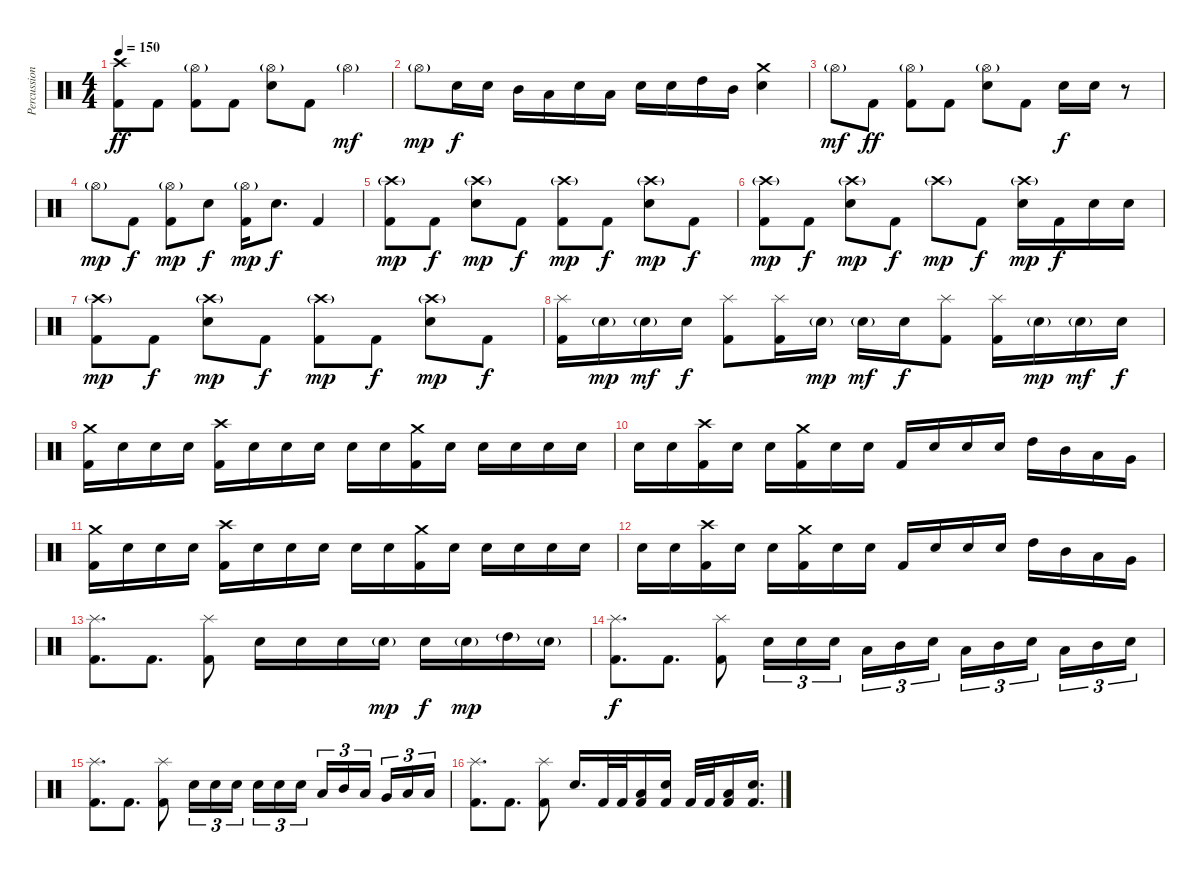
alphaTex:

\track ("Percussion" "Percussion") {instrument percussion}
\staff {score}
\articulation defaults
\ts (4 4)
\tempo 150
\clef neutral
\ks c
("Crash high (hit)" "Kick (hit) 2").8{dy ff} "Kick (hit) 2".8 ("Hi-Hat (open)"{g} "Kick (hit) 2").8 "Kick (hit) 2".8 ("Hi-Hat (open)"{g} "Electric Snare (hit)").8 "Kick (hit) 2".8 "Hi-Hat (open)"{g}.4{dy mf} |
"Hi-Hat (open)"{g}.8{dy mp} "Electric Snare (hit)".16{dy f} "Electric Snare (hit)".16 "Mid Tom (hit)".16 "Low Tom (hit)".16 "Electric Snare (hit)".16 "Low Tom (hit)".16 "Electric Snare (hit)".16 "Electric Snare (hit)".16 "High Tom (hit)".16 "Mid Tom (hit)".16 ("Crash medium (hit)" "Electric Snare (hit)").4 |
"Hi-Hat (open)"{g}.8{dy mf} "Kick (hit) 2".8{dy ff} ("Hi-Hat (open)"{g} "Kick (hit) 2").8 "Kick (hit) 2".8 ("Hi-Hat (open)"{g} "Electric Snare (hit)").8 "Kick (hit) 2".8 "Electric Snare (hit)".16{dy f} "Electric Snare (hit)".16 r.8 |
"Hi-Hat (open)"{g}.8{dy mp} "Kick (hit) 2".8{dy f} ("Hi-Hat (open)"{g} "Kick (hit) 2").8{dy mp} "Electric Snare (hit)".8{dy f} ("Hi-Hat (open)"{g} "Kick (hit) 2").16{dy mp} "Electric Snare (hit)".8{d dy f} "Kick (hit) 2".4 |
("Crash high (hit)"{g} "Kick (hit) 2").8{dy mp} "Kick (hit) 2".8{dy f} ("Crash high (hit)"{g} "Electric Snare (hit)").8{dy mp} "Kick (hit) 2".8{dy f} ("Crash high (hit)"{g} "Kick (hit) 2").8{dy mp} "Kick (hit) 2".8{dy f} ("Crash high (hit)"{g} "Electric Snare (hit)").8{dy mp} "Kick (hit) 2".8{dy f} |
("Crash high (hit)"{g} "Kick (hit) 2").8{dy mp} "Kick (hit) 2".8{dy f} ("Crash high (hit)"{g} "Electric Snare (hit)").8{dy mp} "Kick (hit) 2".8{dy f} "Crash high (hit)"{g}.8{dy mp} "Kick (hit) 2".8{dy f} ("Crash high (hit)"{g} "Electric Snare (hit)").16{dy mp} "Kick (hit) 2".16{dy f} "Electric Snare (hit)".16 "Electric Snare (hit)".16 |
("Crash high (hit)"{g} "Kick (hit) 2").8{dy mp} "Kick (hit) 2".8{dy f} ("Crash high (hit)"{g} "Electric Snare (hit)").8{dy mp} "Kick (hit) 2".8{dy f} ("Crash high (hit)"{g} "Kick (hit) 2").8{dy mp} "Kick (hit) 2".8{dy f} ("Crash high (hit)"{g} "Electric Snare (hit)").8{dy mp} "Kick (hit) 2".8{dy f} |
("Splash (hit)" "Kick (hit) 2").16 "Electric Snare (hit)"{g}.16{dy mp} "Electric Snare (hit)"{g}.16{dy mf} "Electric Snare (hit)".16{dy f} ("Splash (hit)" "Kick (hit) 2").8 ("Splash (hit)" "Kick (hit) 2").16 "Electric Snare (hit)"{g}.16{dy mp} "Electric Snare (hit)"{g}.16{dy mf} "Electric Snare (hit)".16{dy f} ("Splash (hit)" "Kick (hit) 2").8 ("Splash (hit)" "Kick (hit) 2").16 "Electric Snare (hit)"{g}.16{dy mp} "Electric Snare (hit)"{g}.16{dy mf} "Electric Snare (hit)".16{dy f} |
("Crash medium (hit)" "Kick (hit) 2").16 "Electric Snare (hit)".16 "Electric Snare (hit)".16 "Electric Snare (hit)".16 ("Crash high (hit)" "Kick (hit) 2").16 "Electric Snare (hit)".16 "Electric Snare (hit)".16 "Electric Snare (hit)".16 "Electric Snare (hit)".16 "Electric Snare (hit)".16 ("Crash medium (hit)" "Kick (hit) 2").16 "Electric Snare (hit)".16 "Electric Snare (hit)".16 "Electric Snare (hit)".16 "Electric Snare (hit)".16 "Electric Snare (hit)".16 |
"Electric Snare (hit)".16 "Electric Snare (hit)".16 ("Crash high (hit)" "Kick (hit) 2").16 "Electric Snare (hit)".16 "Electric Snare (hit)".16 ("Crash medium (hit)" "Kick (hit) 2").16 "Electric Snare (hit)".16 "Electric Snare (hit)".16 "Kick (hit) 2".16 "Electric Snare (hit)".16 "Electric Snare (hit)".16 "Electric Snare (hit)".16 "High Tom (hit)".16 "Mid Tom (hit)".16 "Low Tom (hit)".16 "Very Low Tom (hit)".16 |
("Crash medium (hit)" "Kick (hit) 2").16 "Electric Snare (hit)".16 "Electric Snare (hit)".16 "Electric Snare (hit)".16 ("Crash high (hit)" "Kick (hit) 2").16 "Electric Snare (hit)".16 "Electric Snare (hit)".16 "Electric Snare (hit)".16 "Electric Snare (hit)".16 "Electric Snare (hit)".16 ("Crash medium (hit)" "Kick (hit) 2").16 "Electric Snare (hit)".16 "Electric Snare (hit)".16 "Electric Snare (hit)".16 "Electric Snare (hit)".16 "Electric Snare (hit)".16 |
"Electric Snare (hit)".16 "Electric Snare (hit)".16 ("Crash high (hit)" "Kick (hit) 2").16 "Electric Snare (hit)".16 "Electric Snare (hit)".16 ("Crash medium (hit)" "Kick (hit) 2").16 "Electric Snare (hit)".16 "Electric Snare (hit)".16 "Kick (hit) 2".16 "Electric Snare (hit)".16 "Electric Snare (hit)".16 "Electric Snare (hit)".16 "High Tom (hit)".16 "Mid Tom (hit)".16 "Low Tom (hit)".16 "Very Low Tom (hit)".16 |
("Splash (hit)" "Kick (hit) 2").8{d} "Kick (hit) 2".8{d} ("Splash (hit)" "Kick (hit) 2").8 "Electric Snare (hit)".16 "Electric Snare (hit)".16 "Electric Snare (hit)".16 "Electric Snare (hit)"{g}.16{dy mp} "Electric Snare (hit)".16{dy f} "Electric Snare (hit)"{g}.16{dy mp} "High Tom (hit)"{g}.16 "Electric Snare (hit)"{g}.16 |
("Splash (hit)" "Kick (hit) 2").8{d dy f} "Kick (hit) 2".8{d} ("Splash (hit)" "Kick (hit) 2").8 "Electric Snare (hit)".16{tu (3 2)} "Electric Snare (hit)".16{tu (3 2)} "Electric Snare (hit)".16{tu (3 2) beam splitsecondary} "Low Tom (hit)".16{tu (3 2)} "Mid Tom (hit)".16{tu (3 2)} "Electric Snare (hit)".16{tu (3 2)} "Low Tom (hit)".16{tu (3 2)} "Mid Tom (hit)".16{tu (3 2)} "Electric Snare (hit)".16{tu (3 2) beam splitsecondary} "Low Tom (hit)".16{tu (3 2)} "Mid Tom (hit)".16{tu (3 2)} "Electric Snare (hit)".16{tu (3 2)} |
("Splash (hit)" "Kick (hit) 2").8{d} "Kick (hit) 2".8{d} ("Splash (hit)" "Kick (hit) 2").8 "Electric Snare (hit)".16{tu (3 2)} "Electric Snare (hit)".16{tu (3 2)} "Electric Snare (hit)".16{tu (3 2) beam splitsecondary} "Electric Snare (hit)".16{tu (3 2)} "Electric Snare (hit)".16{tu (3 2)} "Electric Snare (hit)".16{tu (3 2)} "Low Tom (hit)".16{tu (3 2)} "Mid Tom (hit)".16{tu (3 2)} "Low Tom (hit)".16{tu (3 2) beam splitsecondary} "Very Low Tom (hit)".16{tu (3 2)} "Low Tom (hit)".16{tu (3 2)} "Low Floor Tom (hit)".16{tu (3 2)} |
("Splash (hit)" "Kick (hit) 2").8{d} "Kick (hit) 2".8{d} ("Splash (hit)" "Kick (hit) 2").8 "Electric Snare (hit)".16{d} "Kick (hit) 2".32 "Kick (hit) 2".32 ("Low Tom (hit)" "Kick (hit) 2").16 ("Electric Snare (hit)" "Kick (hit) 2").16 "Kick (hit) 2".32 "Kick (hit) 2".32 ("Low Tom (hit)" "Kick (hit) 2").16 ("Electric Snare (hit)" "Kick (hit) 2").16{d}
